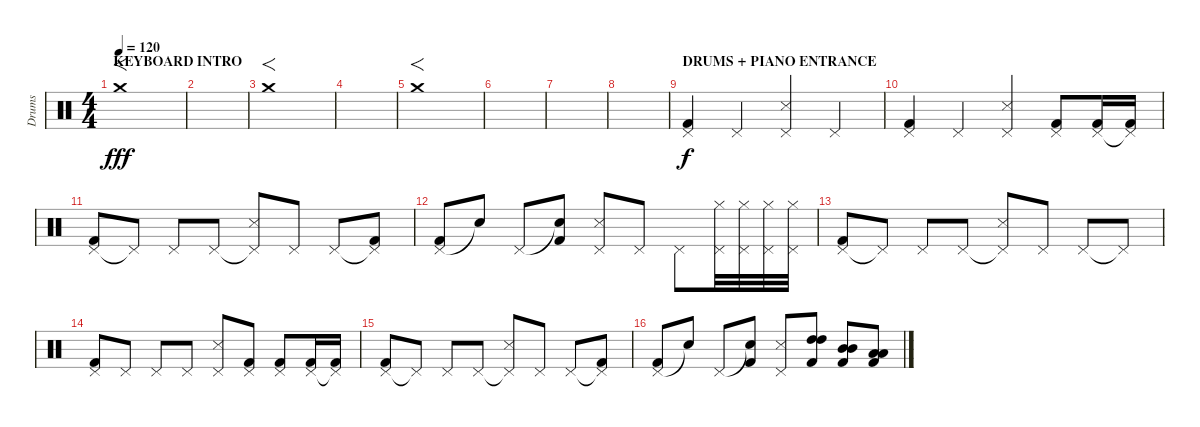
\track ("Drums" "Drums") {instrument percussion}
\staff {score}
\articulation defaults
\ts (4 4)
\section ("" "KEYBOARD INTRO")
\tempo 120
\clef neutral
\ks c "Crash medium (hit)".1{f dy fff}
|
|
"Crash medium (hit)".1{f} |
|
"Crash medium (hit)".1{f} |
|
|
|
\section ("" "DRUMS + PIANO ENTRANCE")
("Pedal Hi-Hat (hit)" "Kick (hit) 2").4{dy f} "Pedal Hi-Hat (hit)".4 ("Pedal Hi-Hat (hit)" "Snare (side stick) 3").4 "Pedal Hi-Hat (hit)".4 |
("Pedal Hi-Hat (hit)" "Kick (hit) 2").4 "Pedal Hi-Hat (hit)".4 ("Pedal Hi-Hat (hit)" "Snare (side stick) 3").4 ("Pedal Hi-Hat (hit)" "Kick (hit) 2").8 ("Pedal Hi-Hat (hit)" "Kick (hit) 2").16 ("Pedal Hi-Hat (hit)"{t} "Kick (hit) 2").16 |
("Pedal Hi-Hat (hit)" "Kick (hit) 2").8 "Pedal Hi-Hat (hit)"{t}.8 "Pedal Hi-Hat (hit)".8 "Pedal Hi-Hat (hit)".8 ("Pedal Hi-Hat (hit)"{t} "Snare (side stick) 3").8 "Pedal Hi-Hat (hit)".8 "Pedal Hi-Hat (hit)".8 ("Pedal Hi-Hat (hit)"{t} "Kick (hit) 2").8 |
("Pedal Hi-Hat (hit)" "Kick (hit) 2").8 "Snare (hit)"{t}.8 "Pedal Hi-Hat (hit)".8 ("Snare (hit)"{t} "Kick (hit) 2").8 ("Pedal Hi-Hat (hit)" "Snare (side stick) 3").8 "Pedal Hi-Hat (hit)".8 "Pedal Hi-Hat (hit)".8 ("Hi-Hat (closed)" "Pedal Hi-Hat (hit)").32 ("Hi-Hat (closed)" "Pedal Hi-Hat (hit)").32 ("Hi-Hat (closed)" "Pedal Hi-Hat (hit)").32 ("Hi-Hat (closed)" "Pedal Hi-Hat (hit)").32 |
("Pedal Hi-Hat (hit)" "Kick (hit) 2").8 "Pedal Hi-Hat (hit)"{t}.8 "Pedal Hi-Hat (hit)".8 "Pedal Hi-Hat (hit)".8 ("Pedal Hi-Hat (hit)"{t} "Snare (side stick) 3").8 "Pedal Hi-Hat (hit)".8 "Pedal Hi-Hat (hit)".8 "Pedal Hi-Hat (hit)"{t}.8 |
("Pedal Hi-Hat (hit)" "Kick (hit) 2").8 "Pedal Hi-Hat (hit)".8 "Pedal Hi-Hat (hit)".8 "Pedal Hi-Hat (hit)".8 ("Pedal Hi-Hat (hit)" "Snare (side stick) 3").8 ("Pedal Hi-Hat (hit)" "Kick (hit) 2").8 ("Pedal Hi-Hat (hit)" "Kick (hit) 2").8 ("Pedal Hi-Hat (hit)" "Kick (hit) 2").16 ("Pedal Hi-Hat (hit)"{t} "Kick (hit) 2").16 |
("Pedal Hi-Hat (hit)" "Kick (hit) 2").8 "Pedal Hi-Hat (hit)"{t}.8 "Pedal Hi-Hat (hit)".8 "Pedal Hi-Hat (hit)".8 ("Pedal Hi-Hat (hit)"{t} "Snare (side stick) 3").8 "Pedal Hi-Hat (hit)".8 "Pedal Hi-Hat (hit)".8 ("Pedal Hi-Hat (hit)"{t} "Kick (hit) 2").8 |
("Pedal Hi-Hat (hit)" "Kick (hit) 2").8 "Snare (hit)"{t}.8 "Pedal Hi-Hat (hit)".8 ("Snare (hit)"{t} "Kick (hit) 2").8 ("Pedal Hi-Hat (hit)" "Snare (side stick) 3").8 ("High Tom (hit)" "High Tom (hit)" "Kick (hit) 2").8 ("Mid Tom (hit)" "Mid Tom (hit)" "Kick (hit) 2").8 ("Low Tom (hit)" "Low Tom (hit)" "Kick (hit) 2").8
